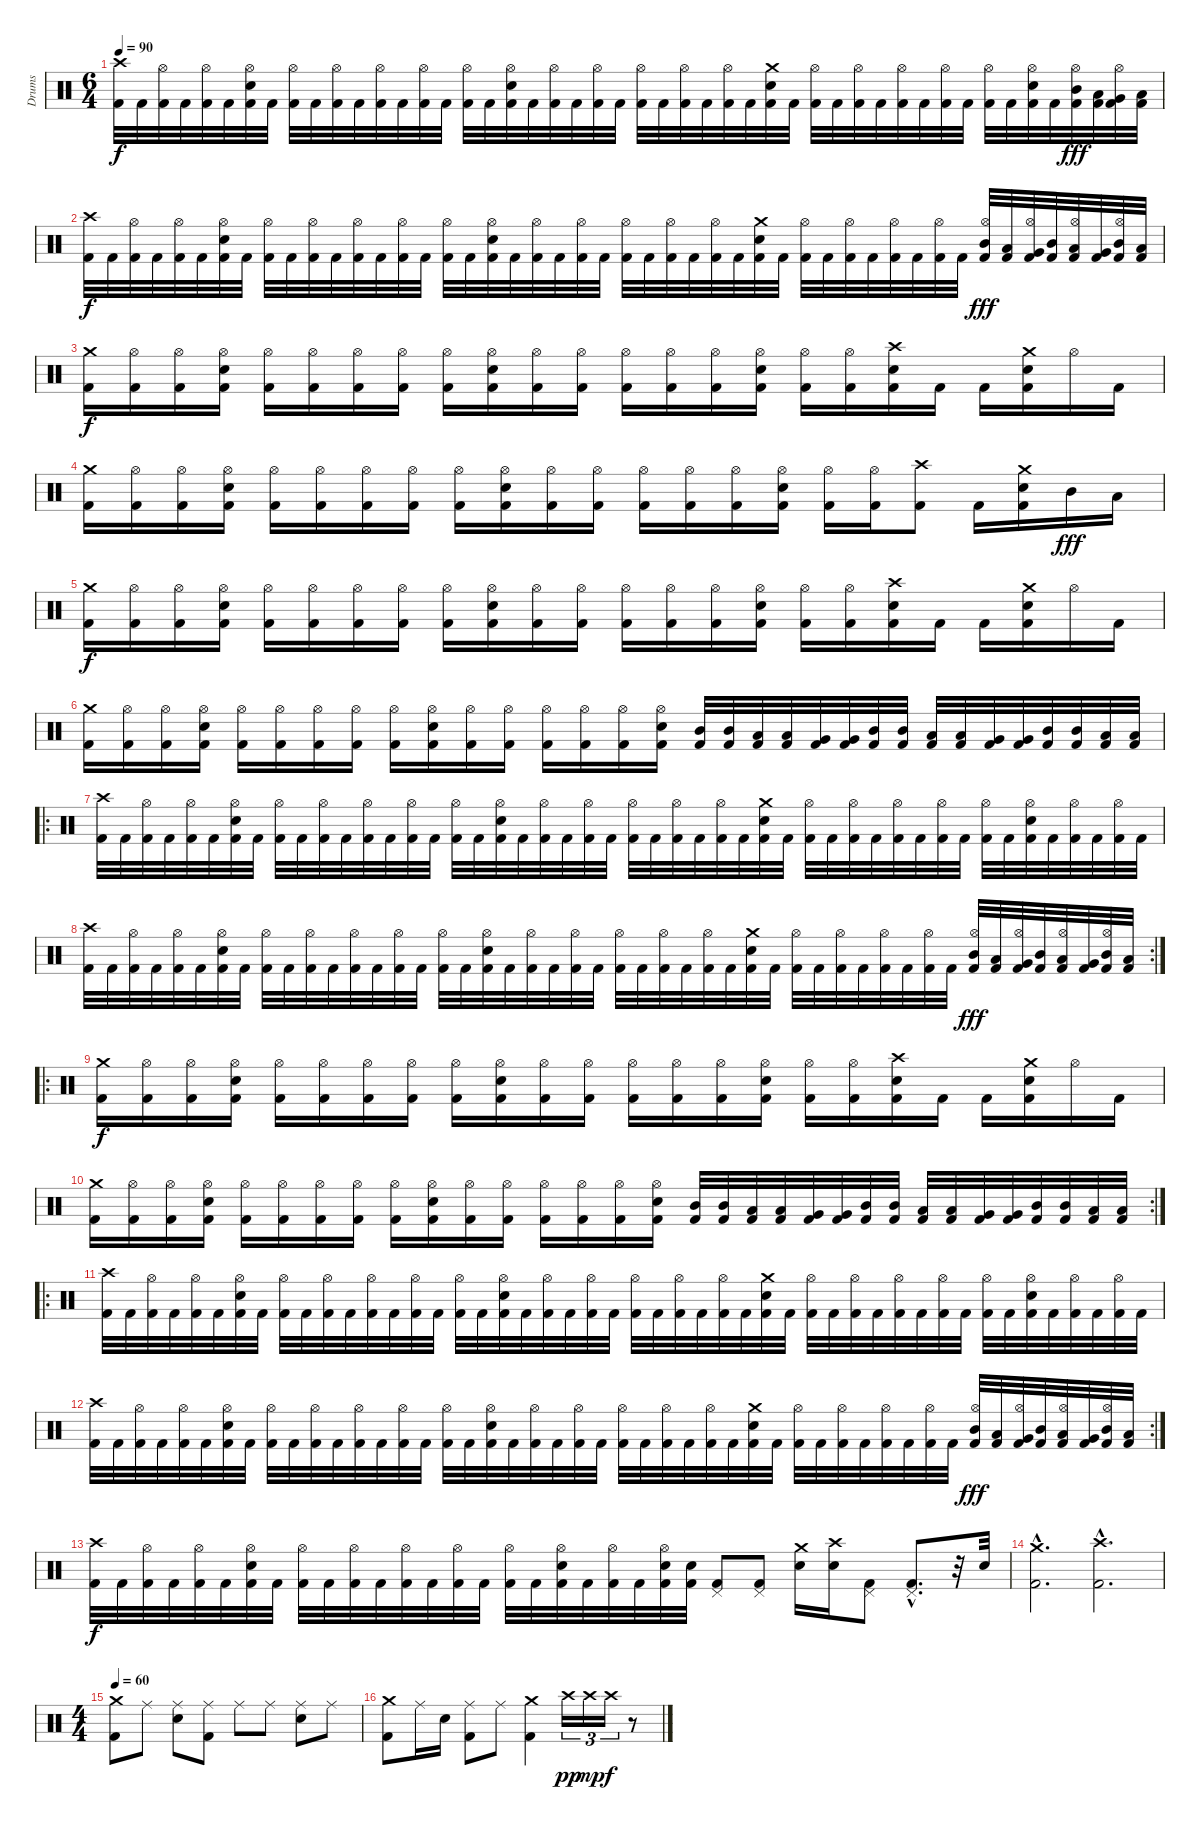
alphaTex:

\track ("Drums" "Drums") {instrument percussion}
\staff {score}
\articulation defaults
\ts (6 4)
\tempo 90
\clef neutral
\ks c
("Crash high (hit)" "Kick (hit) 2").32{dy f} "Kick (hit) 2".32 ("Hi-Hat (open)" "Kick (hit) 2").32 "Kick (hit) 2".32 ("Hi-Hat (open)" "Kick (hit) 2").32 "Kick (hit) 2".32 ("Hi-Hat (open)" "Electric Snare (hit)" "Kick (hit) 2").32 "Kick (hit) 2".32 ("Hi-Hat (open)" "Kick (hit) 2").32 "Kick (hit) 2".32 ("Hi-Hat (open)" "Kick (hit) 2").32 "Kick (hit) 2".32 ("Hi-Hat (open)" "Kick (hit) 2").32 "Kick (hit) 2".32 ("Hi-Hat (open)" "Kick (hit) 2").32 "Kick (hit) 2".32 ("Hi-Hat (open)" "Kick (hit) 2").32 "Kick (hit) 2".32 ("Hi-Hat (open)" "Electric Snare (hit)" "Kick (hit) 2").32 "Kick (hit) 2".32 ("Hi-Hat (open)" "Kick (hit) 2").32 "Kick (hit) 2".32 ("Hi-Hat (open)" "Kick (hit) 2").32 "Kick (hit) 2".32 ("Hi-Hat (open)" "Kick (hit) 2").32 "Kick (hit) 2".32 ("Hi-Hat (open)" "Kick (hit) 2").32 "Kick (hit) 2".32 ("Hi-Hat (open)" "Kick (hit) 2").32 "Kick (hit) 2".32 ("Crash medium (hit)" "Electric Snare (hit)" "Kick (hit) 2").32 "Kick (hit) 2".32 ("Hi-Hat (open)" "Kick (hit) 2").32 "Kick (hit) 2".32 ("Hi-Hat (open)" "Kick (hit) 2").32 "Kick (hit) 2".32 ("Hi-Hat (open)" "Kick (hit) 2").32 "Kick (hit) 2".32 ("Hi-Hat (open)" "Kick (hit) 2").32 "Kick (hit) 2".32 ("Hi-Hat (open)" "Kick (hit) 2").32 "Kick (hit) 2".32 ("Hi-Hat (open)" "Electric Snare (hit)" "Kick (hit) 2").32 "Kick (hit) 2".32 ("Hi-Hat (open)" "Mid Tom (hit)" "Kick (hit) 2").32{dy fff} ("Low Tom (hit)" "Kick (hit) 2").32 ("Hi-Hat (open)" "Very Low Tom (hit)" "Kick (hit) 2").32 ("Low Floor Tom (hit)" "Kick (hit) 2").32 |
("Crash high (hit)" "Kick (hit) 2").32{dy f} "Kick (hit) 2".32 ("Hi-Hat (open)" "Kick (hit) 2").32 "Kick (hit) 2".32 ("Hi-Hat (open)" "Kick (hit) 2").32 "Kick (hit) 2".32 ("Hi-Hat (open)" "Electric Snare (hit)" "Kick (hit) 2").32 "Kick (hit) 2".32 ("Hi-Hat (open)" "Kick (hit) 2").32 "Kick (hit) 2".32 ("Hi-Hat (open)" "Kick (hit) 2").32 "Kick (hit) 2".32 ("Hi-Hat (open)" "Kick (hit) 2").32 "Kick (hit) 2".32 ("Hi-Hat (open)" "Kick (hit) 2").32 "Kick (hit) 2".32 ("Hi-Hat (open)" "Kick (hit) 2").32 "Kick (hit) 2".32 ("Hi-Hat (open)" "Electric Snare (hit)" "Kick (hit) 2").32 "Kick (hit) 2".32 ("Hi-Hat (open)" "Kick (hit) 2").32 "Kick (hit) 2".32 ("Hi-Hat (open)" "Kick (hit) 2").32 "Kick (hit) 2".32 ("Hi-Hat (open)" "Kick (hit) 2").32 "Kick (hit) 2".32 ("Hi-Hat (open)" "Kick (hit) 2").32 "Kick (hit) 2".32 ("Hi-Hat (open)" "Kick (hit) 2").32 "Kick (hit) 2".32 ("Crash medium (hit)" "Electric Snare (hit)" "Kick (hit) 2").32 "Kick (hit) 2".32 ("Hi-Hat (open)" "Kick (hit) 2").32 "Kick (hit) 2".32 ("Hi-Hat (open)" "Kick (hit) 2").32 "Kick (hit) 2".32 ("Hi-Hat (open)" "Kick (hit) 2").32 "Kick (hit) 2".32 ("Hi-Hat (open)" "Kick (hit) 2").32 "Kick (hit) 2".32 ("Hi-Hat (open)" "Mid Tom (hit)" "Kick (hit) 2").32{dy fff} ("Low Tom (hit)" "Kick (hit) 2").32 ("Hi-Hat (open)" "Very Low Tom (hit)" "Kick (hit) 2").32 ("Mid Tom (hit)" "Kick (hit) 2").32 ("Hi-Hat (open)" "Low Tom (hit)" "Kick (hit) 2").32 ("Very Low Tom (hit)" "Kick (hit) 2").32 ("Hi-Hat (open)" "Mid Tom (hit)" "Kick (hit) 2").32 ("Low Tom (hit)" "Kick (hit) 2").32 |
("Crash medium (hit)" "Kick (hit) 2").16{dy f} ("Hi-Hat (open)" "Kick (hit) 2").16 ("Hi-Hat (open)" "Kick (hit) 2").16 ("Hi-Hat (open)" "Electric Snare (hit)" "Kick (hit) 2").16 ("Hi-Hat (open)" "Kick (hit) 2").16 ("Hi-Hat (open)" "Kick (hit) 2").16 ("Hi-Hat (open)" "Kick (hit) 2").16 ("Hi-Hat (open)" "Kick (hit) 2").16 ("Hi-Hat (open)" "Kick (hit) 2").16 ("Hi-Hat (open)" "Electric Snare (hit)" "Kick (hit) 2").16 ("Hi-Hat (open)" "Kick (hit) 2").16 ("Hi-Hat (open)" "Kick (hit) 2").16 ("Hi-Hat (open)" "Kick (hit) 2").16 ("Hi-Hat (open)" "Kick (hit) 2").16 ("Hi-Hat (open)" "Kick (hit) 2").16 ("Hi-Hat (open)" "Electric Snare (hit)" "Kick (hit) 2").16 ("Hi-Hat (open)" "Kick (hit) 2").16 ("Hi-Hat (open)" "Kick (hit) 2").16 ("Crash high (hit)" "Electric Snare (hit)" "Kick (hit) 2").16 "Kick (hit) 2".16 "Kick (hit) 2".16 ("Crash medium (hit)" "Electric Snare (hit)" "Kick (hit) 2").16 "Hi-Hat (open)".16 "Kick (hit) 2".16 |
("Crash medium (hit)" "Kick (hit) 2").16 ("Hi-Hat (open)" "Kick (hit) 2").16 ("Hi-Hat (open)" "Kick (hit) 2").16 ("Hi-Hat (open)" "Electric Snare (hit)" "Kick (hit) 2").16 ("Hi-Hat (open)" "Kick (hit) 2").16 ("Hi-Hat (open)" "Kick (hit) 2").16 ("Hi-Hat (open)" "Kick (hit) 2").16 ("Hi-Hat (open)" "Kick (hit) 2").16 ("Hi-Hat (open)" "Kick (hit) 2").16 ("Hi-Hat (open)" "Electric Snare (hit)" "Kick (hit) 2").16 ("Hi-Hat (open)" "Kick (hit) 2").16 ("Hi-Hat (open)" "Kick (hit) 2").16 ("Hi-Hat (open)" "Kick (hit) 2").16 ("Hi-Hat (open)" "Kick (hit) 2").16 ("Hi-Hat (open)" "Kick (hit) 2").16 ("Hi-Hat (open)" "Electric Snare (hit)" "Kick (hit) 2").16 ("Hi-Hat (open)" "Kick (hit) 2").16 ("Hi-Hat (open)" "Kick (hit) 2").16 ("Crash high (hit)" "Kick (hit) 2").8 "Kick (hit) 2".16 ("Crash medium (hit)" "Electric Snare (hit)" "Kick (hit) 2").16 "Mid Tom (hit)".16{dy fff} "Low Tom (hit)".16 |
("Crash medium (hit)" "Kick (hit) 2").16{dy f} ("Hi-Hat (open)" "Kick (hit) 2").16 ("Hi-Hat (open)" "Kick (hit) 2").16 ("Hi-Hat (open)" "Electric Snare (hit)" "Kick (hit) 2").16 ("Hi-Hat (open)" "Kick (hit) 2").16 ("Hi-Hat (open)" "Kick (hit) 2").16 ("Hi-Hat (open)" "Kick (hit) 2").16 ("Hi-Hat (open)" "Kick (hit) 2").16 ("Hi-Hat (open)" "Kick (hit) 2").16 ("Hi-Hat (open)" "Electric Snare (hit)" "Kick (hit) 2").16 ("Hi-Hat (open)" "Kick (hit) 2").16 ("Hi-Hat (open)" "Kick (hit) 2").16 ("Hi-Hat (open)" "Kick (hit) 2").16 ("Hi-Hat (open)" "Kick (hit) 2").16 ("Hi-Hat (open)" "Kick (hit) 2").16 ("Hi-Hat (open)" "Electric Snare (hit)" "Kick (hit) 2").16 ("Hi-Hat (open)" "Kick (hit) 2").16 ("Hi-Hat (open)" "Kick (hit) 2").16 ("Crash high (hit)" "Electric Snare (hit)" "Kick (hit) 2").16 "Kick (hit) 2".16 "Kick (hit) 2".16 ("Crash medium (hit)" "Electric Snare (hit)" "Kick (hit) 2").16 "Hi-Hat (open)".16 "Kick (hit) 2".16 |
("Crash medium (hit)" "Kick (hit) 2").16 ("Hi-Hat (open)" "Kick (hit) 2").16 ("Hi-Hat (open)" "Kick (hit) 2").16 ("Hi-Hat (open)" "Electric Snare (hit)" "Kick (hit) 2").16 ("Hi-Hat (open)" "Kick (hit) 2").16 ("Hi-Hat (open)" "Kick (hit) 2").16 ("Hi-Hat (open)" "Kick (hit) 2").16 ("Hi-Hat (open)" "Kick (hit) 2").16 ("Hi-Hat (open)" "Kick (hit) 2").16 ("Hi-Hat (open)" "Electric Snare (hit)" "Kick (hit) 2").16 ("Hi-Hat (open)" "Kick (hit) 2").16 ("Hi-Hat (open)" "Kick (hit) 2").16 ("Hi-Hat (open)" "Kick (hit) 2").16 ("Hi-Hat (open)" "Kick (hit) 2").16 ("Hi-Hat (open)" "Kick (hit) 2").16 ("Hi-Hat (open)" "Electric Snare (hit)" "Kick (hit) 2").16 ("Mid Tom (hit)" "Kick (hit) 2").32 ("Mid Tom (hit)" "Kick (hit) 2").32 ("Low Tom (hit)" "Kick (hit) 2").32 ("Low Tom (hit)" "Kick (hit) 2").32 ("Very Low Tom (hit)" "Kick (hit) 2").32 ("Very Low Tom (hit)" "Kick (hit) 2").32 ("Mid Tom (hit)" "Kick (hit) 2").32 ("Mid Tom (hit)" "Kick (hit) 2").32 ("Low Tom (hit)" "Kick (hit) 2").32 ("Low Tom (hit)" "Kick (hit) 2").32 ("Very Low Tom (hit)" "Kick (hit) 2").32 ("Very Low Tom (hit)" "Kick (hit) 2").32 ("Mid Tom (hit)" "Kick (hit) 2").32 ("Mid Tom (hit)" "Kick (hit) 2").32 ("Low Tom (hit)" "Kick (hit) 2").32 ("Low Tom (hit)" "Kick (hit) 2").32 |
\ro
("Crash high (hit)" "Kick (hit) 2").32 "Kick (hit) 2".32 ("Hi-Hat (open)" "Kick (hit) 2").32 "Kick (hit) 2".32 ("Hi-Hat (open)" "Kick (hit) 2").32 "Kick (hit) 2".32 ("Hi-Hat (open)" "Electric Snare (hit)" "Kick (hit) 2").32 "Kick (hit) 2".32 ("Hi-Hat (open)" "Kick (hit) 2").32 "Kick (hit) 2".32 ("Hi-Hat (open)" "Kick (hit) 2").32 "Kick (hit) 2".32 ("Hi-Hat (open)" "Kick (hit) 2").32 "Kick (hit) 2".32 ("Hi-Hat (open)" "Kick (hit) 2").32 "Kick (hit) 2".32 ("Hi-Hat (open)" "Kick (hit) 2").32 "Kick (hit) 2".32 ("Hi-Hat (open)" "Electric Snare (hit)" "Kick (hit) 2").32 "Kick (hit) 2".32 ("Hi-Hat (open)" "Kick (hit) 2").32 "Kick (hit) 2".32 ("Hi-Hat (open)" "Kick (hit) 2").32 "Kick (hit) 2".32 ("Hi-Hat (open)" "Kick (hit) 2").32 "Kick (hit) 2".32 ("Hi-Hat (open)" "Kick (hit) 2").32 "Kick (hit) 2".32 ("Hi-Hat (open)" "Kick (hit) 2").32 "Kick (hit) 2".32 ("Crash medium (hit)" "Electric Snare (hit)" "Kick (hit) 2").32 "Kick (hit) 2".32 ("Hi-Hat (open)" "Kick (hit) 2").32 "Kick (hit) 2".32 ("Hi-Hat (open)" "Kick (hit) 2").32 "Kick (hit) 2".32 ("Hi-Hat (open)" "Kick (hit) 2").32 "Kick (hit) 2".32 ("Hi-Hat (open)" "Kick (hit) 2").32 "Kick (hit) 2".32 ("Hi-Hat (open)" "Kick (hit) 2").32 "Kick (hit) 2".32 ("Hi-Hat (open)" "Electric Snare (hit)" "Kick (hit) 2").32 "Kick (hit) 2".32 ("Hi-Hat (open)" "Kick (hit) 2").32 "Kick (hit) 2".32 ("Hi-Hat (open)" "Kick (hit) 2").32 "Kick (hit) 2".32 |
\rc 2
("Crash high (hit)" "Kick (hit) 2").32 "Kick (hit) 2".32 ("Hi-Hat (open)" "Kick (hit) 2").32 "Kick (hit) 2".32 ("Hi-Hat (open)" "Kick (hit) 2").32 "Kick (hit) 2".32 ("Hi-Hat (open)" "Electric Snare (hit)" "Kick (hit) 2").32 "Kick (hit) 2".32 ("Hi-Hat (open)" "Kick (hit) 2").32 "Kick (hit) 2".32 ("Hi-Hat (open)" "Kick (hit) 2").32 "Kick (hit) 2".32 ("Hi-Hat (open)" "Kick (hit) 2").32 "Kick (hit) 2".32 ("Hi-Hat (open)" "Kick (hit) 2").32 "Kick (hit) 2".32 ("Hi-Hat (open)" "Kick (hit) 2").32 "Kick (hit) 2".32 ("Hi-Hat (open)" "Electric Snare (hit)" "Kick (hit) 2").32 "Kick (hit) 2".32 ("Hi-Hat (open)" "Kick (hit) 2").32 "Kick (hit) 2".32 ("Hi-Hat (open)" "Kick (hit) 2").32 "Kick (hit) 2".32 ("Hi-Hat (open)" "Kick (hit) 2").32 "Kick (hit) 2".32 ("Hi-Hat (open)" "Kick (hit) 2").32 "Kick (hit) 2".32 ("Hi-Hat (open)" "Kick (hit) 2").32 "Kick (hit) 2".32 ("Crash medium (hit)" "Electric Snare (hit)" "Kick (hit) 2").32 "Kick (hit) 2".32 ("Hi-Hat (open)" "Kick (hit) 2").32 "Kick (hit) 2".32 ("Hi-Hat (open)" "Kick (hit) 2").32 "Kick (hit) 2".32 ("Hi-Hat (open)" "Kick (hit) 2").32 "Kick (hit) 2".32 ("Hi-Hat (open)" "Kick (hit) 2").32 "Kick (hit) 2".32 ("Hi-Hat (open)" "Mid Tom (hit)" "Kick (hit) 2").32{dy fff} ("Low Tom (hit)" "Kick (hit) 2").32 ("Hi-Hat (open)" "Very Low Tom (hit)" "Kick (hit) 2").32 ("Mid Tom (hit)" "Kick (hit) 2").32 ("Hi-Hat (open)" "Low Tom (hit)" "Kick (hit) 2").32 ("Very Low Tom (hit)" "Kick (hit) 2").32 ("Hi-Hat (open)" "Mid Tom (hit)" "Kick (hit) 2").32 ("Low Tom (hit)" "Kick (hit) 2").32 |
\ro
("Crash medium (hit)" "Kick (hit) 2").16{dy f} ("Hi-Hat (open)" "Kick (hit) 2").16 ("Hi-Hat (open)" "Kick (hit) 2").16 ("Hi-Hat (open)" "Electric Snare (hit)" "Kick (hit) 2").16 ("Hi-Hat (open)" "Kick (hit) 2").16 ("Hi-Hat (open)" "Kick (hit) 2").16 ("Hi-Hat (open)" "Kick (hit) 2").16 ("Hi-Hat (open)" "Kick (hit) 2").16 ("Hi-Hat (open)" "Kick (hit) 2").16 ("Hi-Hat (open)" "Electric Snare (hit)" "Kick (hit) 2").16 ("Hi-Hat (open)" "Kick (hit) 2").16 ("Hi-Hat (open)" "Kick (hit) 2").16 ("Hi-Hat (open)" "Kick (hit) 2").16 ("Hi-Hat (open)" "Kick (hit) 2").16 ("Hi-Hat (open)" "Kick (hit) 2").16 ("Hi-Hat (open)" "Electric Snare (hit)" "Kick (hit) 2").16 ("Hi-Hat (open)" "Kick (hit) 2").16 ("Hi-Hat (open)" "Kick (hit) 2").16 ("Crash high (hit)" "Electric Snare (hit)" "Kick (hit) 2").16 "Kick (hit) 2".16 "Kick (hit) 2".16 ("Crash medium (hit)" "Electric Snare (hit)" "Kick (hit) 2").16 "Hi-Hat (open)".16 "Kick (hit) 2".16 |
\rc 2
("Crash medium (hit)" "Kick (hit) 2").16 ("Hi-Hat (open)" "Kick (hit) 2").16 ("Hi-Hat (open)" "Kick (hit) 2").16 ("Hi-Hat (open)" "Electric Snare (hit)" "Kick (hit) 2").16 ("Hi-Hat (open)" "Kick (hit) 2").16 ("Hi-Hat (open)" "Kick (hit) 2").16 ("Hi-Hat (open)" "Kick (hit) 2").16 ("Hi-Hat (open)" "Kick (hit) 2").16 ("Hi-Hat (open)" "Kick (hit) 2").16 ("Hi-Hat (open)" "Electric Snare (hit)" "Kick (hit) 2").16 ("Hi-Hat (open)" "Kick (hit) 2").16 ("Hi-Hat (open)" "Kick (hit) 2").16 ("Hi-Hat (open)" "Kick (hit) 2").16 ("Hi-Hat (open)" "Kick (hit) 2").16 ("Hi-Hat (open)" "Kick (hit) 2").16 ("Hi-Hat (open)" "Electric Snare (hit)" "Kick (hit) 2").16 ("Mid Tom (hit)" "Kick (hit) 2").32 ("Mid Tom (hit)" "Kick (hit) 2").32 ("Low Tom (hit)" "Kick (hit) 2").32 ("Low Tom (hit)" "Kick (hit) 2").32 ("Very Low Tom (hit)" "Kick (hit) 2").32 ("Very Low Tom (hit)" "Kick (hit) 2").32 ("Mid Tom (hit)" "Kick (hit) 2").32 ("Mid Tom (hit)" "Kick (hit) 2").32 ("Low Tom (hit)" "Kick (hit) 2").32 ("Low Tom (hit)" "Kick (hit) 2").32 ("Very Low Tom (hit)" "Kick (hit) 2").32 ("Very Low Tom (hit)" "Kick (hit) 2").32 ("Mid Tom (hit)" "Kick (hit) 2").32 ("Mid Tom (hit)" "Kick (hit) 2").32 ("Low Tom (hit)" "Kick (hit) 2").32 ("Low Tom (hit)" "Kick (hit) 2").32 |
\ro
("Crash high (hit)" "Kick (hit) 2").32 "Kick (hit) 2".32 ("Hi-Hat (open)" "Kick (hit) 2").32 "Kick (hit) 2".32 ("Hi-Hat (open)" "Kick (hit) 2").32 "Kick (hit) 2".32 ("Hi-Hat (open)" "Electric Snare (hit)" "Kick (hit) 2").32 "Kick (hit) 2".32 ("Hi-Hat (open)" "Kick (hit) 2").32 "Kick (hit) 2".32 ("Hi-Hat (open)" "Kick (hit) 2").32 "Kick (hit) 2".32 ("Hi-Hat (open)" "Kick (hit) 2").32 "Kick (hit) 2".32 ("Hi-Hat (open)" "Kick (hit) 2").32 "Kick (hit) 2".32 ("Hi-Hat (open)" "Kick (hit) 2").32 "Kick (hit) 2".32 ("Hi-Hat (open)" "Electric Snare (hit)" "Kick (hit) 2").32 "Kick (hit) 2".32 ("Hi-Hat (open)" "Kick (hit) 2").32 "Kick (hit) 2".32 ("Hi-Hat (open)" "Kick (hit) 2").32 "Kick (hit) 2".32 ("Hi-Hat (open)" "Kick (hit) 2").32 "Kick (hit) 2".32 ("Hi-Hat (open)" "Kick (hit) 2").32 "Kick (hit) 2".32 ("Hi-Hat (open)" "Kick (hit) 2").32 "Kick (hit) 2".32 ("Crash medium (hit)" "Electric Snare (hit)" "Kick (hit) 2").32 "Kick (hit) 2".32 ("Hi-Hat (open)" "Kick (hit) 2").32 "Kick (hit) 2".32 ("Hi-Hat (open)" "Kick (hit) 2").32 "Kick (hit) 2".32 ("Hi-Hat (open)" "Kick (hit) 2").32 "Kick (hit) 2".32 ("Hi-Hat (open)" "Kick (hit) 2").32 "Kick (hit) 2".32 ("Hi-Hat (open)" "Kick (hit) 2").32 "Kick (hit) 2".32 ("Hi-Hat (open)" "Electric Snare (hit)" "Kick (hit) 2").32 "Kick (hit) 2".32 ("Hi-Hat (open)" "Kick (hit) 2").32 "Kick (hit) 2".32 ("Hi-Hat (open)" "Kick (hit) 2").32 "Kick (hit) 2".32 |
\rc 2
("Crash high (hit)" "Kick (hit) 2").32 "Kick (hit) 2".32 ("Hi-Hat (open)" "Kick (hit) 2").32 "Kick (hit) 2".32 ("Hi-Hat (open)" "Kick (hit) 2").32 "Kick (hit) 2".32 ("Hi-Hat (open)" "Electric Snare (hit)" "Kick (hit) 2").32 "Kick (hit) 2".32 ("Hi-Hat (open)" "Kick (hit) 2").32 "Kick (hit) 2".32 ("Hi-Hat (open)" "Kick (hit) 2").32 "Kick (hit) 2".32 ("Hi-Hat (open)" "Kick (hit) 2").32 "Kick (hit) 2".32 ("Hi-Hat (open)" "Kick (hit) 2").32 "Kick (hit) 2".32 ("Hi-Hat (open)" "Kick (hit) 2").32 "Kick (hit) 2".32 ("Hi-Hat (open)" "Electric Snare (hit)" "Kick (hit) 2").32 "Kick (hit) 2".32 ("Hi-Hat (open)" "Kick (hit) 2").32 "Kick (hit) 2".32 ("Hi-Hat (open)" "Kick (hit) 2").32 "Kick (hit) 2".32 ("Hi-Hat (open)" "Kick (hit) 2").32 "Kick (hit) 2".32 ("Hi-Hat (open)" "Kick (hit) 2").32 "Kick (hit) 2".32 ("Hi-Hat (open)" "Kick (hit) 2").32 "Kick (hit) 2".32 ("Crash medium (hit)" "Electric Snare (hit)" "Kick (hit) 2").32 "Kick (hit) 2".32 ("Hi-Hat (open)" "Kick (hit) 2").32 "Kick (hit) 2".32 ("Hi-Hat (open)" "Kick (hit) 2").32 "Kick (hit) 2".32 ("Hi-Hat (open)" "Kick (hit) 2").32 "Kick (hit) 2".32 ("Hi-Hat (open)" "Kick (hit) 2").32 "Kick (hit) 2".32 ("Hi-Hat (open)" "Mid Tom (hit)" "Kick (hit) 2").32{dy fff} ("Low Tom (hit)" "Kick (hit) 2").32 ("Hi-Hat (open)" "Very Low Tom (hit)" "Kick (hit) 2").32 ("Mid Tom (hit)" "Kick (hit) 2").32 ("Hi-Hat (open)" "Low Tom (hit)" "Kick (hit) 2").32 ("Very Low Tom (hit)" "Kick (hit) 2").32 ("Hi-Hat (open)" "Mid Tom (hit)" "Kick (hit) 2").32 ("Low Tom (hit)" "Kick (hit) 2").32 |
("Crash high (hit)" "Kick (hit) 2").32{dy f} "Kick (hit) 2".32 ("Hi-Hat (open)" "Kick (hit) 2").32 "Kick (hit) 2".32 ("Hi-Hat (open)" "Kick (hit) 2").32 "Kick (hit) 2".32 ("Hi-Hat (open)" "Electric Snare (hit)" "Kick (hit) 2").32 "Kick (hit) 2".32 ("Hi-Hat (open)" "Kick (hit) 2").32 "Kick (hit) 2".32 ("Hi-Hat (open)" "Kick (hit) 2").32 "Kick (hit) 2".32 ("Hi-Hat (open)" "Kick (hit) 2").32 "Kick (hit) 2".32 ("Hi-Hat (open)" "Kick (hit) 2").32 "Kick (hit) 2".32 ("Hi-Hat (open)" "Kick (hit) 2").32 "Kick (hit) 2".32 ("Hi-Hat (open)" "Electric Snare (hit)" "Kick (hit) 2").32 "Kick (hit) 2".32 ("Hi-Hat (open)" "Kick (hit) 2").32 "Kick (hit) 2".32 ("Hi-Hat (open)" "Electric Snare (hit)" "Kick (hit) 2").32 ("Electric Snare (hit)" "Kick (hit) 2").32 ("Pedal Hi-Hat (hit)" "Kick (hit) 2").8 ("Pedal Hi-Hat (hit)" "Kick (hit) 2").8 ("Crash medium (hit)" "Electric Snare (hit)").16 ("Crash high (hit)" "Electric Snare (hit)").16 ("Pedal Hi-Hat (hit)" "Kick (hit) 2").8 ("Pedal Hi-Hat (hit)"{hac} "Kick (hit) 2"{hac}).8{d} r.32 "Electric Snare (hit)".32 |
("Crash medium (hit)"{hac} "Kick (hit) 2"{hac}).2{d} ("Crash high (hit)"{hac} "Kick (hit) 2"{hac}).2{d} |
\ts (4 4)
\tempo 60
("Crash medium (hit)" "Kick (hit) 2").8 "Ride (middle)".8 ("Ride (middle)" "Electric Snare (hit)").8 ("Ride (middle)" "Kick (hit) 2").8 "Ride (middle)".8 "Ride (middle)".8 ("Ride (middle)" "Electric Snare (hit)").8 "Ride (middle)".8 |
("Crash medium (hit)" "Kick (hit) 2").8 "Ride (middle)".16 "Electric Snare (hit)".16 ("Ride (middle)" "Kick (hit) 2").8 "Ride (middle)".8 ("Crash medium (hit)" "Kick (hit) 2").4 "Crash high (hit)".16{tu (3 2) dy pp} "Crash high (hit)".16{tu (3 2) dy mp} "Crash high (hit)".16{tu (3 2) dy f} r.8
